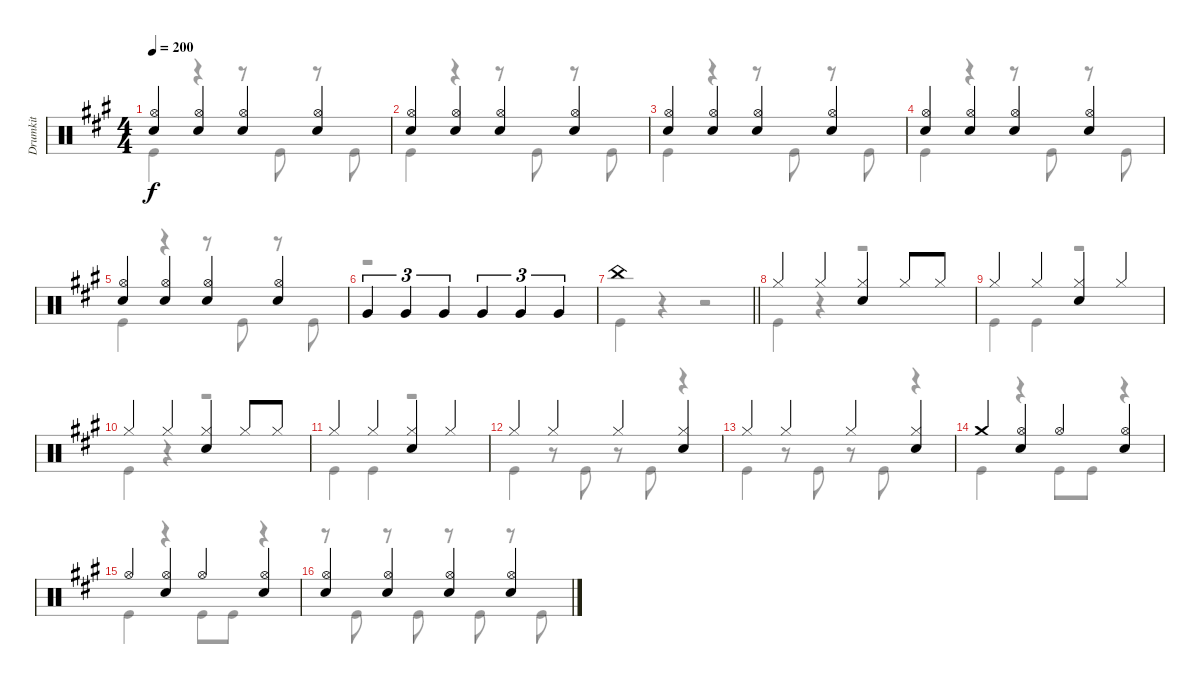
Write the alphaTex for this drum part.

\track ("Drumkit" "Drumkit") {instrument percussion}
\staff {score}
\articulation defaults
\voice
\ts (4 4)
\tempo 200
\clef neutral
\ks a
("Snare (hit) 2" "Hi-Hat (open)").4{dy f} ("Snare (hit) 2" "Hi-Hat (open)").4 ("Snare (hit) 2" "Hi-Hat (open)").4 ("Snare (hit) 2" "Hi-Hat (open)").4 |
("Snare (hit) 2" "Hi-Hat (open)").4 ("Snare (hit) 2" "Hi-Hat (open)").4 ("Snare (hit) 2" "Hi-Hat (open)").4 ("Snare (hit) 2" "Hi-Hat (open)").4 |
("Snare (hit) 2" "Hi-Hat (open)").4 ("Snare (hit) 2" "Hi-Hat (open)").4 ("Snare (hit) 2" "Hi-Hat (open)").4 ("Snare (hit) 2" "Hi-Hat (open)").4 |
("Snare (hit) 2" "Hi-Hat (open)").4 ("Snare (hit) 2" "Hi-Hat (open)").4 ("Snare (hit) 2" "Hi-Hat (open)").4 ("Snare (hit) 2" "Hi-Hat (open)").4 |
("Snare (hit) 2" "Hi-Hat (open)").4 ("Snare (hit) 2" "Hi-Hat (open)").4 ("Snare (hit) 2" "Hi-Hat (open)").4 ("Snare (hit) 2" "Hi-Hat (open)").4 |
"Very Low Tom (hit)".4{tu (3 2)} "Very Low Tom (hit)".4{tu (3 2)} "Very Low Tom (hit)".4{tu (3 2)} "Very Low Tom (hit)".4{tu (3 2)} "Very Low Tom (hit)".4{tu (3 2)} "Very Low Tom (hit)".4{tu (3 2)} |
\barLineRight lightlight "China (hit)".1
|
\section ("" "")
"Hi-Hat (closed)".4 "Hi-Hat (closed)".4 ("Hi-Hat (closed)" "Snare (hit) 2").4 "Hi-Hat (closed)".8 "Hi-Hat (closed)".8 |
"Hi-Hat (closed)".4 "Hi-Hat (closed)".4 ("Hi-Hat (closed)" "Snare (hit) 2").4 "Hi-Hat (closed)".4 |
"Hi-Hat (closed)".4 "Hi-Hat (closed)".4 ("Hi-Hat (closed)" "Snare (hit) 2").4 "Hi-Hat (closed)".8 "Hi-Hat (closed)".8 |
"Hi-Hat (closed)".4 "Hi-Hat (closed)".4 ("Hi-Hat (closed)" "Snare (hit) 2").4 "Hi-Hat (closed)".4 |
"Hi-Hat (closed)".4 "Hi-Hat (closed)".4 "Hi-Hat (closed)".4 ("Hi-Hat (closed)" "Snare (hit) 2").4 |
"Hi-Hat (closed)".4 "Hi-Hat (closed)".4 "Hi-Hat (closed)".4 ("Hi-Hat (closed)" "Snare (hit) 2").4 |
"Crash medium (hit)".4 ("Hi-Hat (open)" "Snare (hit) 2").4 "Hi-Hat (open)".4 ("Hi-Hat (open)" "Snare (hit) 2").4 |
"Hi-Hat (open)".4 ("Hi-Hat (open)" "Snare (hit) 2").4 "Hi-Hat (open)".4 ("Hi-Hat (open)" "Snare (hit) 2").4 |
("Snare (hit) 2" "Hi-Hat (open)").4 ("Snare (hit) 2" "Hi-Hat (open)").4 ("Snare (hit) 2" "Hi-Hat (open)").4 ("Snare (hit) 2" "Hi-Hat (open)").4
\voice
\clef neutral
\ottava regular
\simile none
\ks a "Kick (hit)".4{dy f}
r.4 r.8 "Kick (hit)".8 r.8 "Kick (hit)".8 |
"Kick (hit)".4 r.4 r.8 "Kick (hit)".8 r.8 "Kick (hit)".8 |
"Kick (hit)".4 r.4 r.8 "Kick (hit)".8 r.8 "Kick (hit)".8 |
"Kick (hit)".4 r.4 r.8 "Kick (hit)".8 r.8 "Kick (hit)".8 |
"Kick (hit)".4 r.4 r.8 "Kick (hit)".8 r.8 "Kick (hit)".8 |
r.1 |
\barLineRight lightlight "Kick (hit)".4
r.4 r.2 |
"Kick (hit)".4 r.4 r.2 |
"Kick (hit)".4 "Kick (hit)".4 r.2 |
"Kick (hit)".4 r.4 r.2 |
"Kick (hit)".4 "Kick (hit)".4 r.2 |
"Kick (hit)".4 r.8 "Kick (hit)".8 r.8 "Kick (hit)".8 r.4 |
"Kick (hit)".4 r.8 "Kick (hit)".8 r.8 "Kick (hit)".8 r.4 |
"Kick (hit)".4 r.4 "Kick (hit)".8 "Kick (hit)".8 r.4 |
"Kick (hit)".4 r.4 "Kick (hit)".8 "Kick (hit)".8 r.4 |
r.8 "Kick (hit)".8 r.8 "Kick (hit)".8 r.8 "Kick (hit)".8 r.8 "Kick (hit)".8
